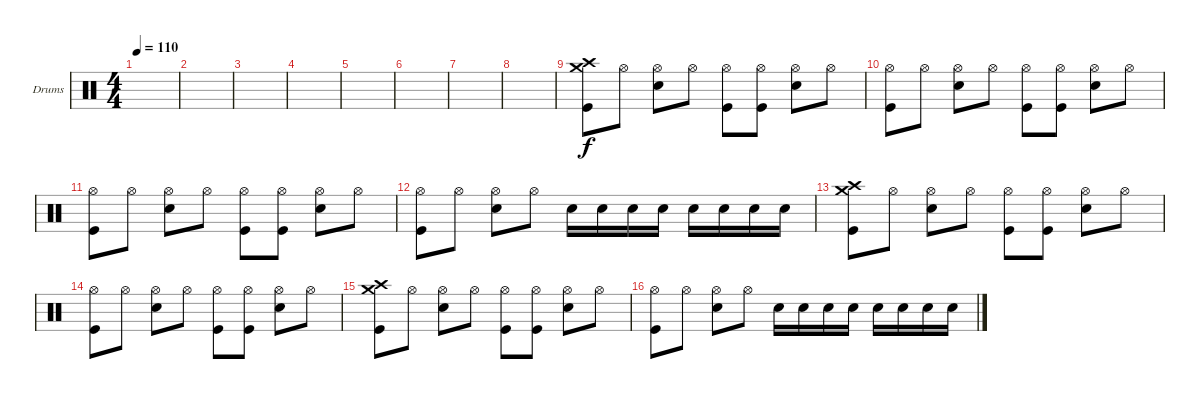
\defaultSystemsLayout 4
\bracketExtendMode groupsimilarinstruments
\firstSystemTrackNameOrientation horizontal
\otherSystemsTrackNameOrientation horizontal
\track ("Drumkit" "Drums") {instrument percussion}
\staff {score}
\articulation defaults
\ts (4 4)
\tempo 110
\clef neutral
\scale
0.333333
\ks c
|
\scale
0.333333 |
\scale
0.333333 |
\scale
0.333333 |
\scale
0.333333 |
\scale
0.333333 |
\scale
0.333333 |
\scale
0.333333 |
\scale
0.333333 ("Crash medium (hit)" "Crash high (hit)" "Kick (hit)").8 "Hi-Hat (open)".8 ("Hi-Hat (open)" "Snare (hit) 2").8 "Hi-Hat (open)".8 ("Hi-Hat (open)" "Kick (hit)").8 ("Hi-Hat (open)" "Kick (hit)").8 ("Hi-Hat (open)" "Snare (hit) 2").8 "Hi-Hat (open)".8 |
\scale
0.333333 ("Hi-Hat (open)" "Kick (hit)").8 "Hi-Hat (open)".8 ("Hi-Hat (open)" "Snare (hit) 2").8 "Hi-Hat (open)".8 ("Hi-Hat (open)" "Kick (hit)").8 ("Hi-Hat (open)" "Kick (hit)").8 ("Hi-Hat (open)" "Snare (hit) 2").8 "Hi-Hat (open)".8 |
\scale
0.333333 ("Hi-Hat (open)" "Kick (hit)").8 "Hi-Hat (open)".8 ("Hi-Hat (open)" "Snare (hit) 2").8 "Hi-Hat (open)".8 ("Hi-Hat (open)" "Kick (hit)").8 ("Hi-Hat (open)" "Kick (hit)").8 ("Hi-Hat (open)" "Snare (hit) 2").8 "Hi-Hat (open)".8 |
\scale
0.333333 ("Hi-Hat (open)" "Kick (hit)").8 "Hi-Hat (open)".8 ("Hi-Hat (open)" "Snare (hit) 2").8 "Hi-Hat (open)".8 "Snare (hit) 2".16 "Snare (hit) 2".16 "Snare (hit) 2".16 "Snare (hit) 2".16 "Snare (hit) 2".16 "Snare (hit) 2".16 "Snare (hit) 2".16 "Snare (hit) 2".16 |
\scale
0.333333 ("Crash medium (hit)" "Crash high (hit)" "Kick (hit)").8 "Hi-Hat (open)".8 ("Hi-Hat (open)" "Snare (hit) 2").8 "Hi-Hat (open)".8 ("Hi-Hat (open)" "Kick (hit)").8 ("Hi-Hat (open)" "Kick (hit)").8 ("Hi-Hat (open)" "Snare (hit) 2").8 "Hi-Hat (open)".8 |
\scale
0.333333 ("Hi-Hat (open)" "Kick (hit)").8 "Hi-Hat (open)".8 ("Hi-Hat (open)" "Snare (hit) 2").8 "Hi-Hat (open)".8 ("Hi-Hat (open)" "Kick (hit)").8 ("Hi-Hat (open)" "Kick (hit)").8 ("Hi-Hat (open)" "Snare (hit) 2").8 "Hi-Hat (open)".8 |
\scale
0.333333 ("Crash medium (hit)" "Crash high (hit)" "Kick (hit)").8 "Hi-Hat (open)".8 ("Hi-Hat (open)" "Snare (hit) 2").8 "Hi-Hat (open)".8 ("Hi-Hat (open)" "Kick (hit)").8 ("Hi-Hat (open)" "Kick (hit)").8 ("Hi-Hat (open)" "Snare (hit) 2").8 "Hi-Hat (open)".8 |
\scale
0.333333 ("Hi-Hat (open)" "Kick (hit)").8 "Hi-Hat (open)".8 ("Hi-Hat (open)" "Snare (hit) 2").8 "Hi-Hat (open)".8 "Snare (hit) 2".16 "Snare (hit) 2".16 "Snare (hit) 2".16 "Snare (hit) 2".16 "Snare (hit) 2".16 "Snare (hit) 2".16 "Snare (hit) 2".16 "Snare (hit) 2".16
